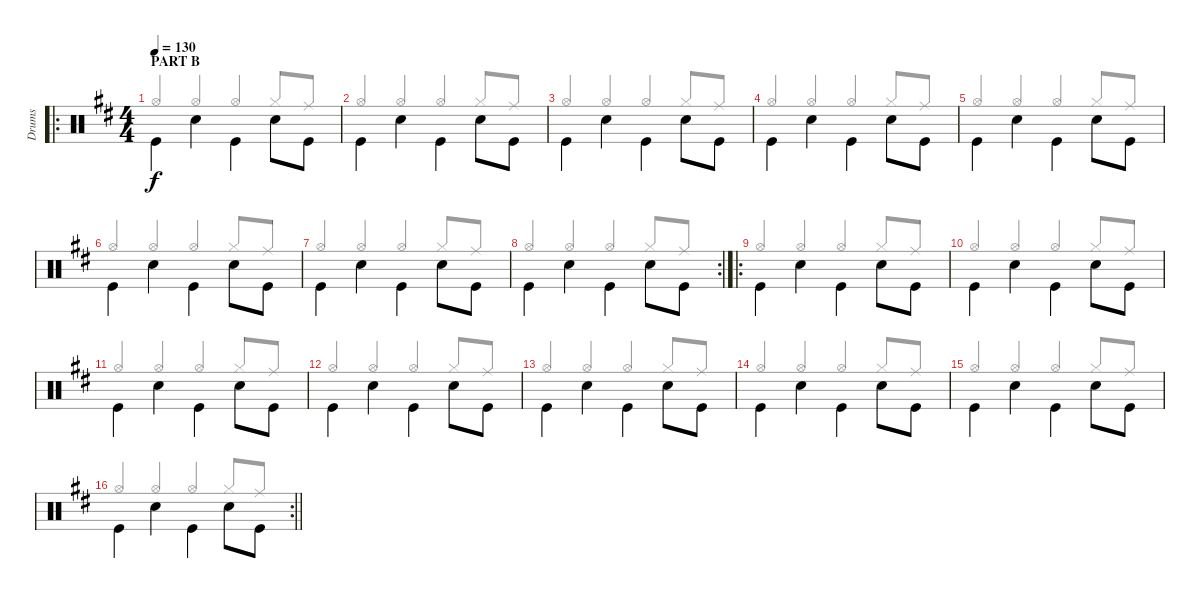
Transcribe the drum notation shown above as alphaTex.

\track ("Drums" "Drums") {instrument percussion}
\staff {score}
\articulation defaults
\voice
\ro
\ts (4 4)
\section ("" "PART B")
\tempo 130
\clef neutral
\ks d "Kick (hit)".4{dy f beam Down} "Snare (hit) 2".4{beam Down} "Kick (hit)".4{beam Down} "Snare (hit) 2".8{beam Down} "Kick (hit)".8{beam Down}
|
"Kick (hit)".4{beam Down} "Snare (hit) 2".4{beam Down} "Kick (hit)".4{beam Down} "Snare (hit) 2".8{beam Down} "Kick (hit)".8{beam Down} |
"Kick (hit)".4{beam Down} "Snare (hit) 2".4{beam Down} "Kick (hit)".4{beam Down} "Snare (hit) 2".8{beam Down} "Kick (hit)".8{beam Down} |
"Kick (hit)".4{beam Down} "Snare (hit) 2".4{beam Down} "Kick (hit)".4{beam Down} "Snare (hit) 2".8{beam Down} "Kick (hit)".8{beam Down} |
"Kick (hit)".4{beam Down} "Snare (hit) 2".4{beam Down} "Kick (hit)".4{beam Down} "Snare (hit) 2".8{beam Down} "Kick (hit)".8{beam Down} |
"Kick (hit)".4{beam Down} "Snare (hit) 2".4{beam Down} "Kick (hit)".4{beam Down} "Snare (hit) 2".8{beam Down} "Kick (hit)".8{beam Down} |
"Kick (hit)".4{beam Down} "Snare (hit) 2".4{beam Down} "Kick (hit)".4{beam Down} "Snare (hit) 2".8{beam Down} "Kick (hit)".8{beam Down} |
\rc 2 "Kick (hit)".4{beam Down} "Snare (hit) 2".4{beam Down} "Kick (hit)".4{beam Down} "Snare (hit) 2".8{beam Down} "Kick (hit)".8{beam Down}
|
\ro "Kick (hit)".4{beam Down} "Snare (hit) 2".4{beam Down} "Kick (hit)".4{beam Down} "Snare (hit) 2".8{beam Down} "Kick (hit)".8{beam Down}
|
"Kick (hit)".4{beam Down} "Snare (hit) 2".4{beam Down} "Kick (hit)".4{beam Down} "Snare (hit) 2".8{beam Down} "Kick (hit)".8{beam Down} |
"Kick (hit)".4{beam Down} "Snare (hit) 2".4{beam Down} "Kick (hit)".4{beam Down} "Snare (hit) 2".8{beam Down} "Kick (hit)".8{beam Down} |
"Kick (hit)".4{beam Down} "Snare (hit) 2".4{beam Down} "Kick (hit)".4{beam Down} "Snare (hit) 2".8{beam Down} "Kick (hit)".8{beam Down} |
"Kick (hit)".4{beam Down} "Snare (hit) 2".4{beam Down} "Kick (hit)".4{beam Down} "Snare (hit) 2".8{beam Down} "Kick (hit)".8{beam Down} |
"Kick (hit)".4{beam Down} "Snare (hit) 2".4{beam Down} "Kick (hit)".4{beam Down} "Snare (hit) 2".8{beam Down} "Kick (hit)".8{beam Down} |
"Kick (hit)".4{beam Down} "Snare (hit) 2".4{beam Down} "Kick (hit)".4{beam Down} "Snare (hit) 2".8{beam Down} "Kick (hit)".8{beam Down} |
\rc 2
\barLineRight lightlight "Kick (hit)".4{beam Down} "Snare (hit) 2".4{beam Down} "Kick (hit)".4{beam Down} "Snare (hit) 2".8{beam Down} "Kick (hit)".8{beam Down}
\voice
\clef neutral
\ottava regular
\simile none
\ks d "Hi-Hat (open)".4{dy f beam Up} "Hi-Hat (open)".4{beam Up} "Hi-Hat (open)".4{beam Up} "Hi-Hat (closed)".8{beam Up} "Ride (middle)".8{beam Up}
|
"Hi-Hat (open)".4{beam Up} "Hi-Hat (open)".4{beam Up} "Hi-Hat (open)".4{beam Up} "Hi-Hat (closed)".8{beam Up} "Ride (middle)".8{beam Up} |
"Hi-Hat (open)".4{beam Up} "Hi-Hat (open)".4{beam Up} "Hi-Hat (open)".4{beam Up} "Hi-Hat (closed)".8{beam Up} "Ride (middle)".8{beam Up} |
"Hi-Hat (open)".4{beam Up} "Hi-Hat (open)".4{beam Up} "Hi-Hat (open)".4{beam Up} "Hi-Hat (closed)".8{beam Up} "Ride (middle)".8{beam Up} |
"Hi-Hat (open)".4{beam Up} "Hi-Hat (open)".4{beam Up} "Hi-Hat (open)".4{beam Up} "Hi-Hat (closed)".8{beam Up} "Ride (middle)".8{beam Up} |
"Hi-Hat (open)".4{beam Up} "Hi-Hat (open)".4{beam Up} "Hi-Hat (open)".4{beam Up} "Hi-Hat (closed)".8{beam Up} "Ride (middle)".8{beam Up} |
"Hi-Hat (open)".4{beam Up} "Hi-Hat (open)".4{beam Up} "Hi-Hat (open)".4{beam Up} "Hi-Hat (closed)".8{beam Up} "Ride (middle)".8{beam Up} |
"Hi-Hat (open)".4{beam Up} "Hi-Hat (open)".4{beam Up} "Hi-Hat (open)".4{beam Up} "Hi-Hat (closed)".8{beam Up} "Ride (middle)".8{beam Up} |
"Hi-Hat (open)".4{beam Up} "Hi-Hat (open)".4{beam Up} "Hi-Hat (open)".4{beam Up} "Hi-Hat (closed)".8{beam Up} "Ride (middle)".8{beam Up} |
"Hi-Hat (open)".4{beam Up} "Hi-Hat (open)".4{beam Up} "Hi-Hat (open)".4{beam Up} "Hi-Hat (closed)".8{beam Up} "Ride (middle)".8{beam Up} |
"Hi-Hat (open)".4{beam Up} "Hi-Hat (open)".4{beam Up} "Hi-Hat (open)".4{beam Up} "Hi-Hat (closed)".8{beam Up} "Ride (middle)".8{beam Up} |
"Hi-Hat (open)".4{beam Up} "Hi-Hat (open)".4{beam Up} "Hi-Hat (open)".4{beam Up} "Hi-Hat (closed)".8{beam Up} "Ride (middle)".8{beam Up} |
"Hi-Hat (open)".4{beam Up} "Hi-Hat (open)".4{beam Up} "Hi-Hat (open)".4{beam Up} "Hi-Hat (closed)".8{beam Up} "Ride (middle)".8{beam Up} |
"Hi-Hat (open)".4{beam Up} "Hi-Hat (open)".4{beam Up} "Hi-Hat (open)".4{beam Up} "Hi-Hat (closed)".8{beam Up} "Ride (middle)".8{beam Up} |
"Hi-Hat (open)".4{beam Up} "Hi-Hat (open)".4{beam Up} "Hi-Hat (open)".4{beam Up} "Hi-Hat (closed)".8{beam Up} "Ride (middle)".8{beam Up} |
\barLineRight lightlight "Hi-Hat (open)".4{beam Up} "Hi-Hat (open)".4{beam Up} "Hi-Hat (open)".4{beam Up} "Hi-Hat (closed)".8{beam Up} "Ride (middle)".8{beam Up}
